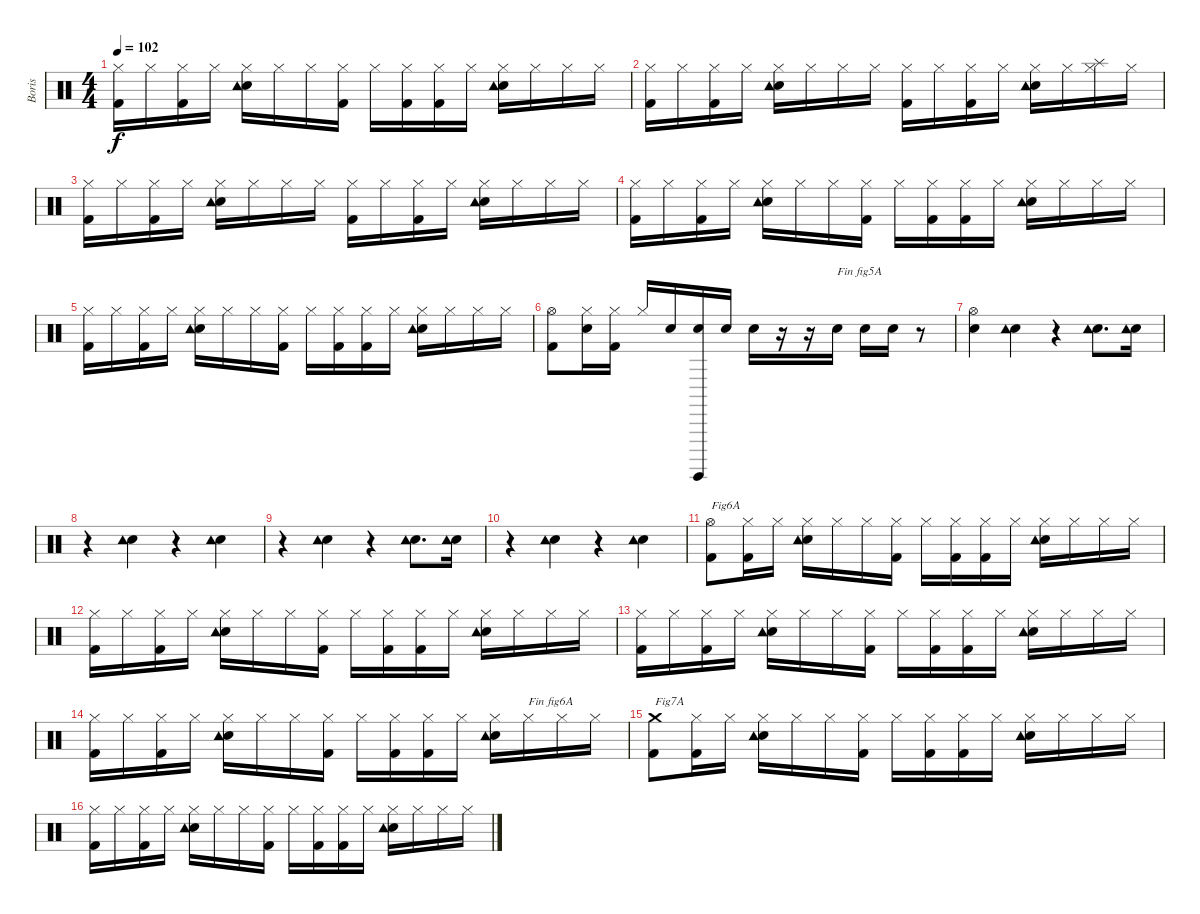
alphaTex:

\track ("Boris" "Boris") {instrument percussion}
\staff {score}
\articulation defaults
\ts (4 4)
\tempo 102
\clef neutral
\ks c
("Kick (hit) 2" "Hi-Hat (closed)").16{dy f} "Hi-Hat (closed)".16 ("Kick (hit) 2" "Hi-Hat (closed)").16 "Hi-Hat (closed)".16 ("Electric Snare (hit)" "Tambourine (hit)" "Hi-Hat (closed)").16 "Hi-Hat (closed)".16 "Hi-Hat (closed)".16 ("Kick (hit) 2" "Hi-Hat (closed)").16 "Hi-Hat (closed)".16 ("Kick (hit) 2" "Hi-Hat (closed)").16 ("Kick (hit) 2" "Hi-Hat (closed)").16 "Hi-Hat (closed)".16 ("Electric Snare (hit)" "Tambourine (hit)" "Hi-Hat (closed)").16 "Hi-Hat (closed)".16 "Hi-Hat (closed)".16 "Hi-Hat (closed)".16 |
("Kick (hit) 2" "Hi-Hat (closed)").16 "Hi-Hat (closed)".16 ("Kick (hit) 2" "Hi-Hat (closed)").16 "Hi-Hat (closed)".16 ("Electric Snare (hit)" "Tambourine (hit)" "Hi-Hat (closed)").16 "Hi-Hat (closed)".16 "Hi-Hat (closed)".16 "Hi-Hat (closed)".16 ("Kick (hit) 2" "Hi-Hat (closed)").16 "Hi-Hat (closed)".16 ("Kick (hit) 2" "Hi-Hat (closed)").16 "Hi-Hat (closed)".16 ("Electric Snare (hit)" "Tambourine (hit)" "Hi-Hat (closed)").16 "Hi-Hat (closed)".16 ("Hi-Hat (closed)" "Splash (hit)").16 "Hi-Hat (closed)".16 |
("Kick (hit) 2" "Hi-Hat (closed)").16 "Hi-Hat (closed)".16 ("Kick (hit) 2" "Hi-Hat (closed)").16 "Hi-Hat (closed)".16 ("Electric Snare (hit)" "Tambourine (hit)" "Hi-Hat (closed)").16 "Hi-Hat (closed)".16 "Hi-Hat (closed)".16 "Hi-Hat (closed)".16 ("Kick (hit) 2" "Hi-Hat (closed)").16 "Hi-Hat (closed)".16 ("Kick (hit) 2" "Hi-Hat (closed)").16 "Hi-Hat (closed)".16 ("Electric Snare (hit)" "Tambourine (hit)" "Hi-Hat (closed)").16 "Hi-Hat (closed)".16 "Hi-Hat (closed)".16 "Hi-Hat (closed)".16 |
("Kick (hit) 2" "Hi-Hat (closed)").16 "Hi-Hat (closed)".16 ("Kick (hit) 2" "Hi-Hat (closed)").16 "Hi-Hat (closed)".16 ("Electric Snare (hit)" "Tambourine (hit)" "Hi-Hat (closed)").16 "Hi-Hat (closed)".16 "Hi-Hat (closed)".16 ("Kick (hit) 2" "Hi-Hat (closed)").16 "Hi-Hat (closed)".16 ("Kick (hit) 2" "Hi-Hat (closed)").16 ("Kick (hit) 2" "Hi-Hat (closed)").16 "Hi-Hat (closed)".16 ("Electric Snare (hit)" "Tambourine (hit)" "Hi-Hat (closed)").16 "Hi-Hat (closed)".16 "Hi-Hat (closed)".16 "Hi-Hat (closed)".16 |
("Kick (hit) 2" "Hi-Hat (closed)").16 "Hi-Hat (closed)".16 ("Kick (hit) 2" "Hi-Hat (closed)").16 "Hi-Hat (closed)".16 ("Electric Snare (hit)" "Tambourine (hit)" "Hi-Hat (closed)").16 "Hi-Hat (closed)".16 "Hi-Hat (closed)".16 ("Kick (hit) 2" "Hi-Hat (closed)").16 "Hi-Hat (closed)".16 ("Kick (hit) 2" "Hi-Hat (closed)").16 ("Kick (hit) 2" "Hi-Hat (closed)").16 "Hi-Hat (closed)".16 ("Electric Snare (hit)" "Tambourine (hit)" "Hi-Hat (closed)").16 "Hi-Hat (closed)".16 "Hi-Hat (closed)".16 "Hi-Hat (closed)".16 |
("Kick (hit) 2" "Hi-Hat (open)").8 ("Electric Snare (hit)" "Hi-Hat (closed)").16 ("Kick (hit) 2" "Hi-Hat (closed)").16 "Hi-Hat (closed)".16 "Electric Snare (hit)".16 ("Electric Snare (hit)" "Surdo (hit)").16 "Electric Snare (hit)".16 "Electric Snare (hit)".16 r.16 r.16 "Electric Snare (hit)".16{txt "Fin fig5A"} "Electric Snare (hit)".16 "Electric Snare (hit)".16 r.8 |
("Electric Snare (hit)" "Hi-Hat (open)").4 ("Electric Snare (hit)" "Tambourine (hit)").4 r.4 ("Electric Snare (hit)" "Tambourine (hit)").8{d} ("Electric Snare (hit)" "Tambourine (hit)").16 |
r.4 ("Electric Snare (hit)" "Tambourine (hit)").4 r.4 ("Electric Snare (hit)" "Tambourine (hit)").4 |
r.4 ("Electric Snare (hit)" "Tambourine (hit)").4 r.4 ("Electric Snare (hit)" "Tambourine (hit)").8{d} ("Electric Snare (hit)" "Tambourine (hit)").16 |
r.4 ("Electric Snare (hit)" "Tambourine (hit)").4 r.4 ("Electric Snare (hit)" "Tambourine (hit)").4 |
("Kick (hit) 2" "Hi-Hat (open)").8{txt "Fig6A"} ("Kick (hit) 2" "Hi-Hat (closed)").16 "Hi-Hat (closed)".16 ("Electric Snare (hit)" "Tambourine (hit)" "Hi-Hat (closed)").16 "Hi-Hat (closed)".16 "Hi-Hat (closed)".16 ("Kick (hit) 2" "Hi-Hat (closed)").16 "Hi-Hat (closed)".16 ("Kick (hit) 2" "Hi-Hat (closed)").16 ("Kick (hit) 2" "Hi-Hat (closed)").16 "Hi-Hat (closed)".16 ("Electric Snare (hit)" "Tambourine (hit)" "Hi-Hat (closed)").16 "Hi-Hat (closed)".16 "Hi-Hat (closed)".16 "Hi-Hat (closed)".16 |
("Kick (hit) 2" "Hi-Hat (closed)").16 "Hi-Hat (closed)".16 ("Kick (hit) 2" "Hi-Hat (closed)").16 "Hi-Hat (closed)".16 ("Electric Snare (hit)" "Tambourine (hit)" "Hi-Hat (closed)").16 "Hi-Hat (closed)".16 "Hi-Hat (closed)".16 ("Kick (hit) 2" "Hi-Hat (closed)").16 "Hi-Hat (closed)".16 ("Kick (hit) 2" "Hi-Hat (closed)").16 ("Kick (hit) 2" "Hi-Hat (closed)").16 "Hi-Hat (closed)".16 ("Electric Snare (hit)" "Tambourine (hit)" "Hi-Hat (closed)").16 "Hi-Hat (closed)".16 "Hi-Hat (closed)".16 "Hi-Hat (closed)".16 |
("Kick (hit) 2" "Hi-Hat (closed)").16 "Hi-Hat (closed)".16 ("Kick (hit) 2" "Hi-Hat (closed)").16 "Hi-Hat (closed)".16 ("Electric Snare (hit)" "Tambourine (hit)" "Hi-Hat (closed)").16 "Hi-Hat (closed)".16 "Hi-Hat (closed)".16 ("Kick (hit) 2" "Hi-Hat (closed)").16 "Hi-Hat (closed)".16 ("Kick (hit) 2" "Hi-Hat (closed)").16 ("Kick (hit) 2" "Hi-Hat (closed)").16 "Hi-Hat (closed)".16 ("Electric Snare (hit)" "Tambourine (hit)" "Hi-Hat (closed)").16 "Hi-Hat (closed)".16 "Hi-Hat (closed)".16 "Hi-Hat (closed)".16 |
("Kick (hit) 2" "Hi-Hat (closed)").16 "Hi-Hat (closed)".16 ("Kick (hit) 2" "Hi-Hat (closed)").16 "Hi-Hat (closed)".16 ("Electric Snare (hit)" "Tambourine (hit)" "Hi-Hat (closed)").16 "Hi-Hat (closed)".16 "Hi-Hat (closed)".16 ("Kick (hit) 2" "Hi-Hat (closed)").16 "Hi-Hat (closed)".16 ("Kick (hit) 2" "Hi-Hat (closed)").16 ("Kick (hit) 2" "Hi-Hat (closed)").16 "Hi-Hat (closed)".16 ("Electric Snare (hit)" "Tambourine (hit)" "Hi-Hat (closed)").16 "Hi-Hat (closed)".16{txt "Fin fig6A"} "Hi-Hat (closed)".16 "Hi-Hat (closed)".16 |
("Kick (hit) 2" "Crash medium (hit)").8{txt "Fig7A"} ("Kick (hit) 2" "Hi-Hat (closed)").16 "Hi-Hat (closed)".16 ("Electric Snare (hit)" "Tambourine (hit)" "Hi-Hat (closed)").16 "Hi-Hat (closed)".16 "Hi-Hat (closed)".16 ("Kick (hit) 2" "Hi-Hat (closed)").16 "Hi-Hat (closed)".16 ("Kick (hit) 2" "Hi-Hat (closed)").16 ("Kick (hit) 2" "Hi-Hat (closed)").16 "Hi-Hat (closed)".16 ("Electric Snare (hit)" "Tambourine (hit)" "Hi-Hat (closed)").16 "Hi-Hat (closed)".16 "Hi-Hat (closed)".16 "Hi-Hat (closed)".16 |
("Kick (hit) 2" "Hi-Hat (closed)").16 "Hi-Hat (closed)".16 ("Kick (hit) 2" "Hi-Hat (closed)").16 "Hi-Hat (closed)".16 ("Electric Snare (hit)" "Tambourine (hit)" "Hi-Hat (closed)").16 "Hi-Hat (closed)".16 "Hi-Hat (closed)".16 ("Kick (hit) 2" "Hi-Hat (closed)").16 "Hi-Hat (closed)".16 ("Kick (hit) 2" "Hi-Hat (closed)").16 ("Kick (hit) 2" "Hi-Hat (closed)").16 "Hi-Hat (closed)".16 ("Electric Snare (hit)" "Tambourine (hit)" "Hi-Hat (closed)").16 "Hi-Hat (closed)".16 "Hi-Hat (closed)".16 "Hi-Hat (closed)".16
